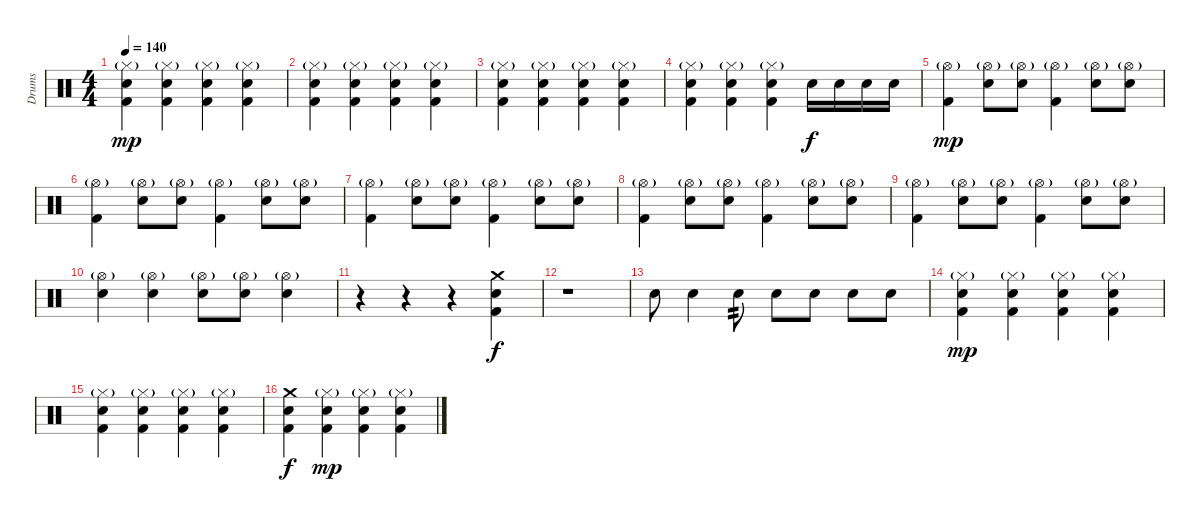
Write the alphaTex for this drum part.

\track ("Drums" "Drums") {instrument percussion}
\staff {score}
\articulation defaults
\ts (4 4)
\tempo 140
\clef neutral
\ks c
("Hi-Hat (closed)"{g} "Electric Snare (hit)" "Kick (hit) 2").4{dy mp} ("Hi-Hat (closed)"{g} "Electric Snare (hit)" "Kick (hit) 2").4 ("Hi-Hat (closed)"{g} "Electric Snare (hit)" "Kick (hit) 2").4 ("Hi-Hat (closed)"{g} "Electric Snare (hit)" "Kick (hit) 2").4 |
("Hi-Hat (closed)"{g} "Electric Snare (hit)" "Kick (hit) 2").4 ("Hi-Hat (closed)"{g} "Electric Snare (hit)" "Kick (hit) 2").4 ("Hi-Hat (closed)"{g} "Electric Snare (hit)" "Kick (hit) 2").4 ("Hi-Hat (closed)"{g} "Electric Snare (hit)" "Kick (hit) 2").4 |
("Hi-Hat (closed)"{g} "Electric Snare (hit)" "Kick (hit) 2").4 ("Hi-Hat (closed)"{g} "Electric Snare (hit)" "Kick (hit) 2").4 ("Hi-Hat (closed)"{g} "Electric Snare (hit)" "Kick (hit) 2").4 ("Hi-Hat (closed)"{g} "Electric Snare (hit)" "Kick (hit) 2").4 |
("Hi-Hat (closed)"{g} "Electric Snare (hit)" "Kick (hit) 2").4 ("Hi-Hat (closed)"{g} "Electric Snare (hit)" "Kick (hit) 2").4 ("Hi-Hat (closed)"{g} "Electric Snare (hit)" "Kick (hit) 2").4 "Electric Snare (hit)".16{dy f} "Electric Snare (hit)".16 "Electric Snare (hit)".16 "Electric Snare (hit)".16 |
("Hi-Hat (open)"{g} "Kick (hit) 2").4{dy mp} ("Hi-Hat (open)"{g} "Electric Snare (hit)").8 ("Hi-Hat (open)"{g} "Electric Snare (hit)").8 ("Hi-Hat (open)"{g} "Kick (hit) 2").4 ("Hi-Hat (open)"{g} "Electric Snare (hit)").8 ("Hi-Hat (open)"{g} "Electric Snare (hit)").8 |
("Hi-Hat (open)"{g} "Kick (hit) 2").4 ("Hi-Hat (open)"{g} "Electric Snare (hit)").8 ("Hi-Hat (open)"{g} "Electric Snare (hit)").8 ("Hi-Hat (open)"{g} "Kick (hit) 2").4 ("Hi-Hat (open)"{g} "Electric Snare (hit)").8 ("Hi-Hat (open)"{g} "Electric Snare (hit)").8 |
("Hi-Hat (open)"{g} "Kick (hit) 2").4 ("Hi-Hat (open)"{g} "Electric Snare (hit)").8 ("Hi-Hat (open)"{g} "Electric Snare (hit)").8 ("Hi-Hat (open)"{g} "Kick (hit) 2").4 ("Hi-Hat (open)"{g} "Electric Snare (hit)").8 ("Hi-Hat (open)"{g} "Electric Snare (hit)").8 |
("Hi-Hat (open)"{g} "Kick (hit) 2").4 ("Hi-Hat (open)"{g} "Electric Snare (hit)").8 ("Hi-Hat (open)"{g} "Electric Snare (hit)").8 ("Hi-Hat (open)"{g} "Kick (hit) 2").4 ("Hi-Hat (open)"{g} "Electric Snare (hit)").8 ("Hi-Hat (open)"{g} "Electric Snare (hit)").8 |
("Hi-Hat (open)"{g} "Kick (hit) 2").4 ("Hi-Hat (open)"{g} "Electric Snare (hit)").8 ("Hi-Hat (open)"{g} "Electric Snare (hit)").8 ("Hi-Hat (open)"{g} "Kick (hit) 2").4 ("Hi-Hat (open)"{g} "Electric Snare (hit)").8 ("Hi-Hat (open)"{g} "Electric Snare (hit)").8 |
("Hi-Hat (open)"{g} "Electric Snare (hit)").4 ("Hi-Hat (open)"{g} "Electric Snare (hit)").4 ("Hi-Hat (open)"{g} "Electric Snare (hit)").8 ("Hi-Hat (open)"{g} "Electric Snare (hit)").8 ("Hi-Hat (open)"{g} "Electric Snare (hit)").4 |
r.4 r.4 r.4 ("Crash medium (hit)" "Electric Snare (hit)" "Kick (hit) 2").4{dy f} |
r.1 |
"Electric Snare (hit)".8 "Snare (hit) 2".4 "Electric Snare (hit)".8{tp 2} "Electric Snare (hit)".8 "Electric Snare (hit)".8 "Snare (hit) 2".8 "Snare (hit) 2".8 |
("Hi-Hat (closed)"{g} "Electric Snare (hit)" "Kick (hit) 2").4{dy mp} ("Hi-Hat (closed)"{g} "Electric Snare (hit)" "Kick (hit) 2").4 ("Hi-Hat (closed)"{g} "Electric Snare (hit)" "Kick (hit) 2").4 ("Hi-Hat (closed)"{g} "Electric Snare (hit)" "Kick (hit) 2").4 |
("Hi-Hat (closed)"{g} "Electric Snare (hit)" "Kick (hit) 2").4 ("Hi-Hat (closed)"{g} "Electric Snare (hit)" "Kick (hit) 2").4 ("Hi-Hat (closed)"{g} "Electric Snare (hit)" "Kick (hit) 2").4 ("Hi-Hat (closed)"{g} "Electric Snare (hit)" "Kick (hit) 2").4 |
("Crash medium (hit)" "Electric Snare (hit)" "Kick (hit) 2").4{dy f} ("Hi-Hat (closed)"{g} "Electric Snare (hit)" "Kick (hit) 2").4{dy mp} ("Hi-Hat (closed)"{g} "Electric Snare (hit)" "Kick (hit) 2").4 ("Hi-Hat (closed)"{g} "Electric Snare (hit)" "Kick (hit) 2").4
